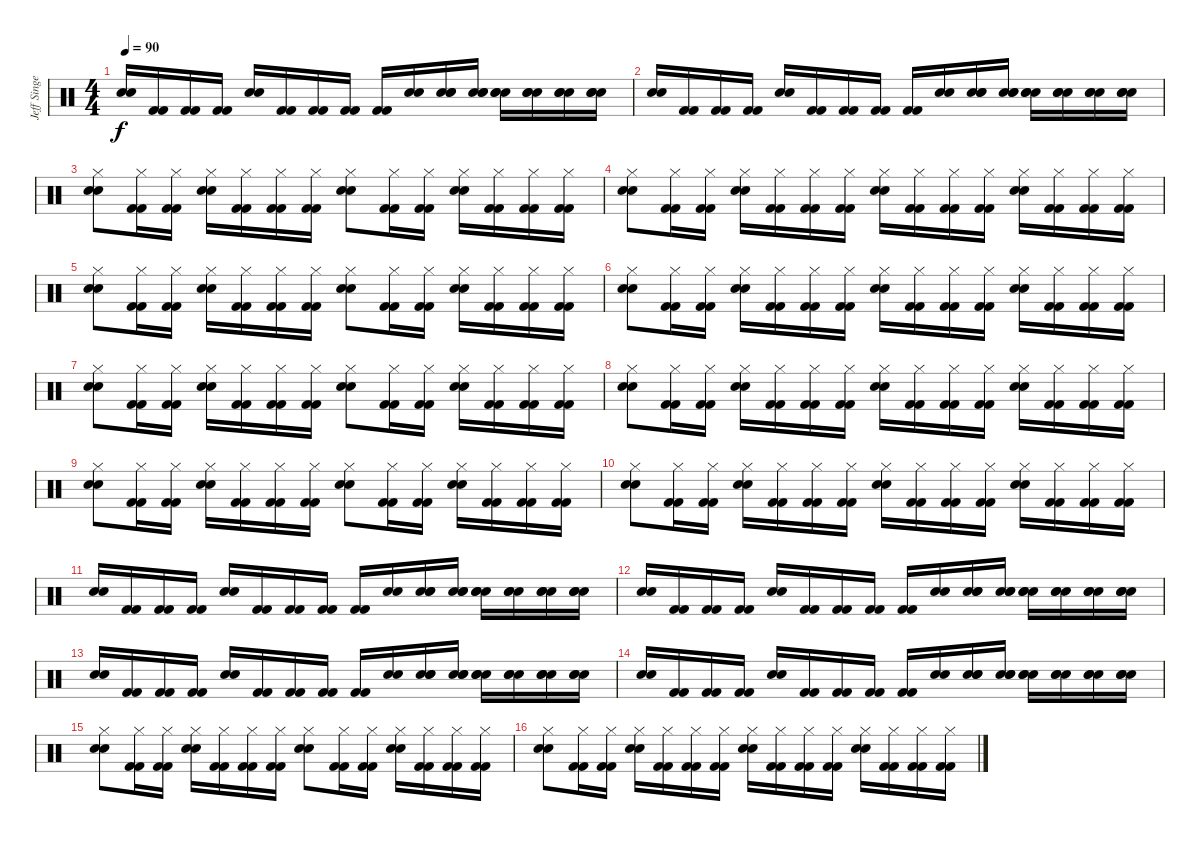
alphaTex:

\track ("Jeff Singer" "Jeff Singe") {instrument percussion}
\staff {score}
\articulation defaults
\ts (4 4)
\tempo 90
\clef neutral
\ks c
("Snare (hit) 2" "Snare (hit) 2").16{dy f} ("Kick (hit) 2" "Kick (hit) 2").16 ("Kick (hit) 2" "Kick (hit) 2").16 ("Kick (hit) 2" "Kick (hit) 2").16 ("Snare (hit) 2" "Snare (hit) 2").16 ("Kick (hit) 2" "Kick (hit) 2").16 ("Kick (hit) 2" "Kick (hit) 2").16 ("Kick (hit) 2" "Kick (hit) 2").16 ("Kick (hit) 2" "Kick (hit) 2").16 ("Snare (hit) 2" "Snare (hit) 2").16 ("Snare (hit) 2" "Snare (hit) 2" "Snare (hit) 2").16 ("Snare (hit) 2" "Snare (hit) 2" "Snare (hit) 2").16 ("Snare (hit) 2" "Snare (hit) 2" "Snare (hit) 2").16 ("Snare (hit) 2" "Snare (hit) 2" "Snare (hit) 2").16 ("Snare (hit) 2" "Snare (hit) 2" "Snare (hit) 2").16 ("Snare (hit) 2" "Snare (hit) 2" "Snare (hit) 2").16 |
("Snare (hit) 2" "Snare (hit) 2").16 ("Kick (hit) 2" "Kick (hit) 2").16 ("Kick (hit) 2" "Kick (hit) 2").16 ("Kick (hit) 2" "Kick (hit) 2").16 ("Snare (hit) 2" "Snare (hit) 2").16 ("Kick (hit) 2" "Kick (hit) 2").16 ("Kick (hit) 2" "Kick (hit) 2").16 ("Kick (hit) 2" "Kick (hit) 2").16 ("Kick (hit) 2" "Kick (hit) 2").16 ("Snare (hit) 2" "Snare (hit) 2").16 ("Snare (hit) 2" "Snare (hit) 2" "Snare (hit) 2").16 ("Snare (hit) 2" "Snare (hit) 2" "Snare (hit) 2").16 ("Snare (hit) 2" "Snare (hit) 2" "Snare (hit) 2").16 ("Snare (hit) 2" "Snare (hit) 2" "Snare (hit) 2").16 ("Snare (hit) 2" "Snare (hit) 2" "Snare (hit) 2").16 ("Snare (hit) 2" "Snare (hit) 2" "Snare (hit) 2").16 |
("Hi-Hat (closed)" "Snare (hit) 2" "Snare (hit) 2").8 ("Hi-Hat (closed)" "Kick (hit) 2" "Kick (hit) 2").16 ("Hi-Hat (closed)" "Kick (hit) 2" "Kick (hit) 2").16 ("Hi-Hat (closed)" "Snare (hit) 2" "Snare (hit) 2").16 ("Hi-Hat (closed)" "Kick (hit) 2" "Kick (hit) 2").16 ("Hi-Hat (closed)" "Kick (hit) 2" "Kick (hit) 2").16 ("Hi-Hat (closed)" "Kick (hit) 2" "Kick (hit) 2").16 ("Hi-Hat (closed)" "Snare (hit) 2" "Snare (hit) 2").8 ("Hi-Hat (closed)" "Kick (hit) 2" "Kick (hit) 2").16 ("Hi-Hat (closed)" "Kick (hit) 2" "Kick (hit) 2").16 ("Hi-Hat (closed)" "Snare (hit) 2" "Snare (hit) 2").16 ("Hi-Hat (closed)" "Kick (hit) 2" "Kick (hit) 2").16 ("Hi-Hat (closed)" "Kick (hit) 2" "Kick (hit) 2").16 ("Hi-Hat (closed)" "Kick (hit) 2" "Kick (hit) 2").16 |
("Hi-Hat (closed)" "Snare (hit) 2" "Snare (hit) 2").8 ("Hi-Hat (closed)" "Kick (hit) 2" "Kick (hit) 2").16 ("Hi-Hat (closed)" "Kick (hit) 2" "Kick (hit) 2").16 ("Hi-Hat (closed)" "Snare (hit) 2" "Snare (hit) 2").16 ("Hi-Hat (closed)" "Kick (hit) 2" "Kick (hit) 2").16 ("Hi-Hat (closed)" "Kick (hit) 2" "Kick (hit) 2").16 ("Hi-Hat (closed)" "Kick (hit) 2" "Kick (hit) 2").16 ("Hi-Hat (closed)" "Snare (hit) 2" "Snare (hit) 2").16 ("Hi-Hat (closed)" "Kick (hit) 2" "Kick (hit) 2").16 ("Hi-Hat (closed)" "Kick (hit) 2" "Kick (hit) 2").16 ("Hi-Hat (closed)" "Kick (hit) 2" "Kick (hit) 2").16 ("Hi-Hat (closed)" "Snare (hit) 2" "Snare (hit) 2").16 ("Hi-Hat (closed)" "Kick (hit) 2" "Kick (hit) 2").16 ("Hi-Hat (closed)" "Kick (hit) 2" "Kick (hit) 2").16 ("Hi-Hat (closed)" "Kick (hit) 2" "Kick (hit) 2").16 |
("Hi-Hat (closed)" "Snare (hit) 2" "Snare (hit) 2").8 ("Hi-Hat (closed)" "Kick (hit) 2" "Kick (hit) 2").16 ("Hi-Hat (closed)" "Kick (hit) 2" "Kick (hit) 2").16 ("Hi-Hat (closed)" "Snare (hit) 2" "Snare (hit) 2").16 ("Hi-Hat (closed)" "Kick (hit) 2" "Kick (hit) 2").16 ("Hi-Hat (closed)" "Kick (hit) 2" "Kick (hit) 2").16 ("Hi-Hat (closed)" "Kick (hit) 2" "Kick (hit) 2").16 ("Hi-Hat (closed)" "Snare (hit) 2" "Snare (hit) 2").8 ("Hi-Hat (closed)" "Kick (hit) 2" "Kick (hit) 2").16 ("Hi-Hat (closed)" "Kick (hit) 2" "Kick (hit) 2").16 ("Hi-Hat (closed)" "Snare (hit) 2" "Snare (hit) 2").16 ("Hi-Hat (closed)" "Kick (hit) 2" "Kick (hit) 2").16 ("Hi-Hat (closed)" "Kick (hit) 2" "Kick (hit) 2").16 ("Hi-Hat (closed)" "Kick (hit) 2" "Kick (hit) 2").16 |
("Hi-Hat (closed)" "Snare (hit) 2" "Snare (hit) 2").8 ("Hi-Hat (closed)" "Kick (hit) 2" "Kick (hit) 2").16 ("Hi-Hat (closed)" "Kick (hit) 2" "Kick (hit) 2").16 ("Hi-Hat (closed)" "Snare (hit) 2" "Snare (hit) 2").16 ("Hi-Hat (closed)" "Kick (hit) 2" "Kick (hit) 2").16 ("Hi-Hat (closed)" "Kick (hit) 2" "Kick (hit) 2").16 ("Hi-Hat (closed)" "Kick (hit) 2" "Kick (hit) 2").16 ("Hi-Hat (closed)" "Snare (hit) 2" "Snare (hit) 2").16 ("Hi-Hat (closed)" "Kick (hit) 2" "Kick (hit) 2").16 ("Hi-Hat (closed)" "Kick (hit) 2" "Kick (hit) 2").16 ("Hi-Hat (closed)" "Kick (hit) 2" "Kick (hit) 2").16 ("Hi-Hat (closed)" "Snare (hit) 2" "Snare (hit) 2").16 ("Hi-Hat (closed)" "Kick (hit) 2" "Kick (hit) 2").16 ("Hi-Hat (closed)" "Kick (hit) 2" "Kick (hit) 2").16 ("Hi-Hat (closed)" "Kick (hit) 2" "Kick (hit) 2").16 |
("Hi-Hat (closed)" "Snare (hit) 2" "Snare (hit) 2").8 ("Hi-Hat (closed)" "Kick (hit) 2" "Kick (hit) 2").16 ("Hi-Hat (closed)" "Kick (hit) 2" "Kick (hit) 2").16 ("Hi-Hat (closed)" "Snare (hit) 2" "Snare (hit) 2").16 ("Hi-Hat (closed)" "Kick (hit) 2" "Kick (hit) 2").16 ("Hi-Hat (closed)" "Kick (hit) 2" "Kick (hit) 2").16 ("Hi-Hat (closed)" "Kick (hit) 2" "Kick (hit) 2").16 ("Hi-Hat (closed)" "Snare (hit) 2" "Snare (hit) 2").8 ("Hi-Hat (closed)" "Kick (hit) 2" "Kick (hit) 2").16 ("Hi-Hat (closed)" "Kick (hit) 2" "Kick (hit) 2").16 ("Hi-Hat (closed)" "Snare (hit) 2" "Snare (hit) 2").16 ("Hi-Hat (closed)" "Kick (hit) 2" "Kick (hit) 2").16 ("Hi-Hat (closed)" "Kick (hit) 2" "Kick (hit) 2").16 ("Hi-Hat (closed)" "Kick (hit) 2" "Kick (hit) 2").16 |
("Hi-Hat (closed)" "Snare (hit) 2" "Snare (hit) 2").8 ("Hi-Hat (closed)" "Kick (hit) 2" "Kick (hit) 2").16 ("Hi-Hat (closed)" "Kick (hit) 2" "Kick (hit) 2").16 ("Hi-Hat (closed)" "Snare (hit) 2" "Snare (hit) 2").16 ("Hi-Hat (closed)" "Kick (hit) 2" "Kick (hit) 2").16 ("Hi-Hat (closed)" "Kick (hit) 2" "Kick (hit) 2").16 ("Hi-Hat (closed)" "Kick (hit) 2" "Kick (hit) 2").16 ("Hi-Hat (closed)" "Snare (hit) 2" "Snare (hit) 2").16 ("Hi-Hat (closed)" "Kick (hit) 2" "Kick (hit) 2").16 ("Hi-Hat (closed)" "Kick (hit) 2" "Kick (hit) 2").16 ("Hi-Hat (closed)" "Kick (hit) 2" "Kick (hit) 2").16 ("Hi-Hat (closed)" "Snare (hit) 2" "Snare (hit) 2").16 ("Hi-Hat (closed)" "Kick (hit) 2" "Kick (hit) 2").16 ("Hi-Hat (closed)" "Kick (hit) 2" "Kick (hit) 2").16 ("Hi-Hat (closed)" "Kick (hit) 2" "Kick (hit) 2").16 |
("Hi-Hat (closed)" "Snare (hit) 2" "Snare (hit) 2").8 ("Hi-Hat (closed)" "Kick (hit) 2" "Kick (hit) 2").16 ("Hi-Hat (closed)" "Kick (hit) 2" "Kick (hit) 2").16 ("Hi-Hat (closed)" "Snare (hit) 2" "Snare (hit) 2").16 ("Hi-Hat (closed)" "Kick (hit) 2" "Kick (hit) 2").16 ("Hi-Hat (closed)" "Kick (hit) 2" "Kick (hit) 2").16 ("Hi-Hat (closed)" "Kick (hit) 2" "Kick (hit) 2").16 ("Hi-Hat (closed)" "Snare (hit) 2" "Snare (hit) 2").8 ("Hi-Hat (closed)" "Kick (hit) 2" "Kick (hit) 2").16 ("Hi-Hat (closed)" "Kick (hit) 2" "Kick (hit) 2").16 ("Hi-Hat (closed)" "Snare (hit) 2" "Snare (hit) 2").16 ("Hi-Hat (closed)" "Kick (hit) 2" "Kick (hit) 2").16 ("Hi-Hat (closed)" "Kick (hit) 2" "Kick (hit) 2").16 ("Hi-Hat (closed)" "Kick (hit) 2" "Kick (hit) 2").16 |
("Hi-Hat (closed)" "Snare (hit) 2" "Snare (hit) 2").8 ("Hi-Hat (closed)" "Kick (hit) 2" "Kick (hit) 2").16 ("Hi-Hat (closed)" "Kick (hit) 2" "Kick (hit) 2").16 ("Hi-Hat (closed)" "Snare (hit) 2" "Snare (hit) 2").16 ("Hi-Hat (closed)" "Kick (hit) 2" "Kick (hit) 2").16 ("Hi-Hat (closed)" "Kick (hit) 2" "Kick (hit) 2").16 ("Hi-Hat (closed)" "Kick (hit) 2" "Kick (hit) 2").16 ("Hi-Hat (closed)" "Snare (hit) 2" "Snare (hit) 2").16 ("Hi-Hat (closed)" "Kick (hit) 2" "Kick (hit) 2").16 ("Hi-Hat (closed)" "Kick (hit) 2" "Kick (hit) 2").16 ("Hi-Hat (closed)" "Kick (hit) 2" "Kick (hit) 2").16 ("Hi-Hat (closed)" "Snare (hit) 2" "Snare (hit) 2").16 ("Hi-Hat (closed)" "Kick (hit) 2" "Kick (hit) 2").16 ("Hi-Hat (closed)" "Kick (hit) 2" "Kick (hit) 2").16 ("Hi-Hat (closed)" "Kick (hit) 2" "Kick (hit) 2").16 |
("Snare (hit) 2" "Snare (hit) 2").16 ("Kick (hit) 2" "Kick (hit) 2").16 ("Kick (hit) 2" "Kick (hit) 2").16 ("Kick (hit) 2" "Kick (hit) 2").16 ("Snare (hit) 2" "Snare (hit) 2").16 ("Kick (hit) 2" "Kick (hit) 2").16 ("Kick (hit) 2" "Kick (hit) 2").16 ("Kick (hit) 2" "Kick (hit) 2").16 ("Kick (hit) 2" "Kick (hit) 2").16 ("Snare (hit) 2" "Snare (hit) 2").16 ("Snare (hit) 2" "Snare (hit) 2" "Snare (hit) 2").16 ("Snare (hit) 2" "Snare (hit) 2" "Snare (hit) 2").16 ("Snare (hit) 2" "Snare (hit) 2" "Snare (hit) 2").16 ("Snare (hit) 2" "Snare (hit) 2" "Snare (hit) 2").16 ("Snare (hit) 2" "Snare (hit) 2" "Snare (hit) 2").16 ("Snare (hit) 2" "Snare (hit) 2" "Snare (hit) 2").16 |
("Snare (hit) 2" "Snare (hit) 2").16 ("Kick (hit) 2" "Kick (hit) 2").16 ("Kick (hit) 2" "Kick (hit) 2").16 ("Kick (hit) 2" "Kick (hit) 2").16 ("Snare (hit) 2" "Snare (hit) 2").16 ("Kick (hit) 2" "Kick (hit) 2").16 ("Kick (hit) 2" "Kick (hit) 2").16 ("Kick (hit) 2" "Kick (hit) 2").16 ("Kick (hit) 2" "Kick (hit) 2").16 ("Snare (hit) 2" "Snare (hit) 2").16 ("Snare (hit) 2" "Snare (hit) 2" "Snare (hit) 2").16 ("Snare (hit) 2" "Snare (hit) 2" "Snare (hit) 2").16 ("Snare (hit) 2" "Snare (hit) 2" "Snare (hit) 2").16 ("Snare (hit) 2" "Snare (hit) 2" "Snare (hit) 2").16 ("Snare (hit) 2" "Snare (hit) 2" "Snare (hit) 2").16 ("Snare (hit) 2" "Snare (hit) 2" "Snare (hit) 2").16 |
("Snare (hit) 2" "Snare (hit) 2").16 ("Kick (hit) 2" "Kick (hit) 2").16 ("Kick (hit) 2" "Kick (hit) 2").16 ("Kick (hit) 2" "Kick (hit) 2").16 ("Snare (hit) 2" "Snare (hit) 2").16 ("Kick (hit) 2" "Kick (hit) 2").16 ("Kick (hit) 2" "Kick (hit) 2").16 ("Kick (hit) 2" "Kick (hit) 2").16 ("Kick (hit) 2" "Kick (hit) 2").16 ("Snare (hit) 2" "Snare (hit) 2").16 ("Snare (hit) 2" "Snare (hit) 2" "Snare (hit) 2").16 ("Snare (hit) 2" "Snare (hit) 2" "Snare (hit) 2").16 ("Snare (hit) 2" "Snare (hit) 2" "Snare (hit) 2").16 ("Snare (hit) 2" "Snare (hit) 2" "Snare (hit) 2").16 ("Snare (hit) 2" "Snare (hit) 2" "Snare (hit) 2").16 ("Snare (hit) 2" "Snare (hit) 2" "Snare (hit) 2").16 |
("Snare (hit) 2" "Snare (hit) 2").16 ("Kick (hit) 2" "Kick (hit) 2").16 ("Kick (hit) 2" "Kick (hit) 2").16 ("Kick (hit) 2" "Kick (hit) 2").16 ("Snare (hit) 2" "Snare (hit) 2").16 ("Kick (hit) 2" "Kick (hit) 2").16 ("Kick (hit) 2" "Kick (hit) 2").16 ("Kick (hit) 2" "Kick (hit) 2").16 ("Kick (hit) 2" "Kick (hit) 2").16 ("Snare (hit) 2" "Snare (hit) 2").16 ("Snare (hit) 2" "Snare (hit) 2" "Snare (hit) 2").16 ("Snare (hit) 2" "Snare (hit) 2" "Snare (hit) 2").16 ("Snare (hit) 2" "Snare (hit) 2" "Snare (hit) 2").16 ("Snare (hit) 2" "Snare (hit) 2" "Snare (hit) 2").16 ("Snare (hit) 2" "Snare (hit) 2" "Snare (hit) 2").16 ("Snare (hit) 2" "Snare (hit) 2" "Snare (hit) 2").16 |
("Hi-Hat (closed)" "Snare (hit) 2" "Snare (hit) 2").8 ("Hi-Hat (closed)" "Kick (hit) 2" "Kick (hit) 2").16 ("Hi-Hat (closed)" "Kick (hit) 2" "Kick (hit) 2").16 ("Hi-Hat (closed)" "Snare (hit) 2" "Snare (hit) 2").16 ("Hi-Hat (closed)" "Kick (hit) 2" "Kick (hit) 2").16 ("Hi-Hat (closed)" "Kick (hit) 2" "Kick (hit) 2").16 ("Hi-Hat (closed)" "Kick (hit) 2" "Kick (hit) 2").16 ("Hi-Hat (closed)" "Snare (hit) 2" "Snare (hit) 2").8 ("Hi-Hat (closed)" "Kick (hit) 2" "Kick (hit) 2").16 ("Hi-Hat (closed)" "Kick (hit) 2" "Kick (hit) 2").16 ("Hi-Hat (closed)" "Snare (hit) 2" "Snare (hit) 2").16 ("Hi-Hat (closed)" "Kick (hit) 2" "Kick (hit) 2").16 ("Hi-Hat (closed)" "Kick (hit) 2" "Kick (hit) 2").16 ("Hi-Hat (closed)" "Kick (hit) 2" "Kick (hit) 2").16 |
("Hi-Hat (closed)" "Snare (hit) 2" "Snare (hit) 2").8 ("Hi-Hat (closed)" "Kick (hit) 2" "Kick (hit) 2").16 ("Hi-Hat (closed)" "Kick (hit) 2" "Kick (hit) 2").16 ("Hi-Hat (closed)" "Snare (hit) 2" "Snare (hit) 2").16 ("Hi-Hat (closed)" "Kick (hit) 2" "Kick (hit) 2").16 ("Hi-Hat (closed)" "Kick (hit) 2" "Kick (hit) 2").16 ("Hi-Hat (closed)" "Kick (hit) 2" "Kick (hit) 2").16 ("Hi-Hat (closed)" "Snare (hit) 2" "Snare (hit) 2").16 ("Hi-Hat (closed)" "Kick (hit) 2" "Kick (hit) 2").16 ("Hi-Hat (closed)" "Kick (hit) 2" "Kick (hit) 2").16 ("Hi-Hat (closed)" "Kick (hit) 2" "Kick (hit) 2").16 ("Hi-Hat (closed)" "Snare (hit) 2" "Snare (hit) 2").16 ("Hi-Hat (closed)" "Kick (hit) 2" "Kick (hit) 2").16 ("Hi-Hat (closed)" "Kick (hit) 2" "Kick (hit) 2").16 ("Hi-Hat (closed)" "Kick (hit) 2" "Kick (hit) 2").16
